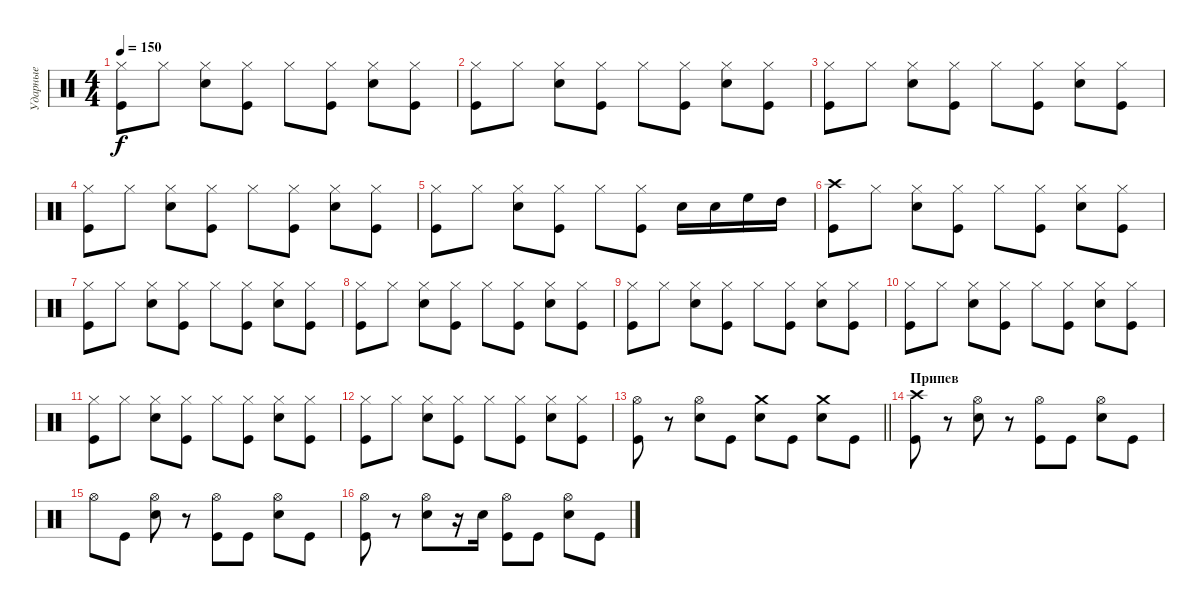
\track ("Ударные" "Ударные") {instrument percussion}
\staff {score}
\articulation defaults
\ts (4 4)
\tempo 150
\clef neutral
\ks c
("Kick (hit)" "Hi-Hat (closed)").8{dy f} "Hi-Hat (closed)".8 ("Snare (hit) 2" "Hi-Hat (closed)").8 ("Kick (hit)" "Hi-Hat (closed)").8 "Hi-Hat (closed)".8 ("Kick (hit)" "Hi-Hat (closed)").8 ("Snare (hit) 2" "Hi-Hat (closed)").8 ("Kick (hit)" "Hi-Hat (closed)").8 |
("Kick (hit)" "Hi-Hat (closed)").8 "Hi-Hat (closed)".8 ("Snare (hit) 2" "Hi-Hat (closed)").8 ("Kick (hit)" "Hi-Hat (closed)").8 "Hi-Hat (closed)".8 ("Kick (hit)" "Hi-Hat (closed)").8 ("Snare (hit) 2" "Hi-Hat (closed)").8 ("Kick (hit)" "Hi-Hat (closed)").8 |
("Kick (hit)" "Hi-Hat (closed)").8 "Hi-Hat (closed)".8 ("Snare (hit) 2" "Hi-Hat (closed)").8 ("Kick (hit)" "Hi-Hat (closed)").8 "Hi-Hat (closed)".8 ("Kick (hit)" "Hi-Hat (closed)").8 ("Snare (hit) 2" "Hi-Hat (closed)").8 ("Kick (hit)" "Hi-Hat (closed)").8 |
("Kick (hit)" "Hi-Hat (closed)").8 "Hi-Hat (closed)".8 ("Snare (hit) 2" "Hi-Hat (closed)").8 ("Kick (hit)" "Hi-Hat (closed)").8 "Hi-Hat (closed)".8 ("Kick (hit)" "Hi-Hat (closed)").8 ("Snare (hit) 2" "Hi-Hat (closed)").8 ("Kick (hit)" "Hi-Hat (closed)").8 |
("Kick (hit)" "Hi-Hat (closed)").8 "Hi-Hat (closed)".8 ("Snare (hit) 2" "Hi-Hat (closed)").8 ("Kick (hit)" "Hi-Hat (closed)").8 "Hi-Hat (closed)".8 ("Kick (hit)" "Hi-Hat (closed)").8 "Snare (hit) 2".16 "Snare (hit) 2".16 "High Floor Tom (hit)".16 "High Tom (hit)".16 |
("Kick (hit)" "Crash high (hit)").8 "Hi-Hat (closed)".8 ("Snare (hit) 2" "Hi-Hat (closed)").8 ("Kick (hit)" "Hi-Hat (closed)").8 "Hi-Hat (closed)".8 ("Kick (hit)" "Hi-Hat (closed)").8 ("Snare (hit) 2" "Hi-Hat (closed)").8 ("Kick (hit)" "Hi-Hat (closed)").8 |
("Kick (hit)" "Hi-Hat (closed)").8 "Hi-Hat (closed)".8 ("Snare (hit) 2" "Hi-Hat (closed)").8 ("Kick (hit)" "Hi-Hat (closed)").8 "Hi-Hat (closed)".8 ("Kick (hit)" "Hi-Hat (closed)").8 ("Snare (hit) 2" "Hi-Hat (closed)").8 ("Kick (hit)" "Hi-Hat (closed)").8 |
("Kick (hit)" "Hi-Hat (closed)").8 "Hi-Hat (closed)".8 ("Snare (hit) 2" "Hi-Hat (closed)").8 ("Kick (hit)" "Hi-Hat (closed)").8 "Hi-Hat (closed)".8 ("Kick (hit)" "Hi-Hat (closed)").8 ("Snare (hit) 2" "Hi-Hat (closed)").8 ("Kick (hit)" "Hi-Hat (closed)").8 |
("Kick (hit)" "Hi-Hat (closed)").8 "Hi-Hat (closed)".8 ("Snare (hit) 2" "Hi-Hat (closed)").8 ("Kick (hit)" "Hi-Hat (closed)").8 "Hi-Hat (closed)".8 ("Kick (hit)" "Hi-Hat (closed)").8 ("Snare (hit) 2" "Hi-Hat (closed)").8 ("Kick (hit)" "Hi-Hat (closed)").8 |
("Kick (hit)" "Hi-Hat (closed)").8 "Hi-Hat (closed)".8 ("Snare (hit) 2" "Hi-Hat (closed)").8 ("Kick (hit)" "Hi-Hat (closed)").8 "Hi-Hat (closed)".8 ("Kick (hit)" "Hi-Hat (closed)").8 ("Snare (hit) 2" "Hi-Hat (closed)").8 ("Kick (hit)" "Hi-Hat (closed)").8 |
("Kick (hit)" "Hi-Hat (closed)").8 "Hi-Hat (closed)".8 ("Snare (hit) 2" "Hi-Hat (closed)").8 ("Kick (hit)" "Hi-Hat (closed)").8 "Hi-Hat (closed)".8 ("Kick (hit)" "Hi-Hat (closed)").8 ("Snare (hit) 2" "Hi-Hat (closed)").8 ("Kick (hit)" "Hi-Hat (closed)").8 |
("Kick (hit)" "Hi-Hat (closed)").8 "Hi-Hat (closed)".8 ("Snare (hit) 2" "Hi-Hat (closed)").8 ("Kick (hit)" "Hi-Hat (closed)").8 "Hi-Hat (closed)".8 ("Kick (hit)" "Hi-Hat (closed)").8 ("Snare (hit) 2" "Hi-Hat (closed)").8 ("Kick (hit)" "Hi-Hat (closed)").8 |
\barLineRight lightlight
("Kick (hit)" "Hi-Hat (open)").8 r.8 ("Snare (hit) 2" "Hi-Hat (open)").8 "Kick (hit)".8 ("Snare (hit) 2" "Crash medium (hit)").8 "Kick (hit)".8 ("Snare (hit) 2" "Crash medium (hit)").8 "Kick (hit)".8 |
\section ("" "Припев")
("Kick (hit)" "Crash high (hit)").8 r.8 ("Snare (hit) 2" "Hi-Hat (open)").8 r.8 ("Kick (hit)" "Hi-Hat (open)").8 "Kick (hit)".8 ("Snare (hit) 2" "Hi-Hat (open)").8 "Kick (hit)".8 |
"Hi-Hat (open)".8 "Kick (hit)".8 ("Snare (hit) 2" "Hi-Hat (open)").8 r.8 ("Kick (hit)" "Hi-Hat (open)").8 "Kick (hit)".8 ("Snare (hit) 2" "Hi-Hat (open)").8 "Kick (hit)".8 |
("Kick (hit)" "Hi-Hat (open)").8 r.8 ("Snare (hit) 2" "Hi-Hat (open)").8 r.16 "Snare (hit) 2".16 ("Kick (hit)" "Hi-Hat (open)").8 "Kick (hit)".8 ("Snare (hit) 2" "Hi-Hat (open)").8 "Kick (hit)".8
